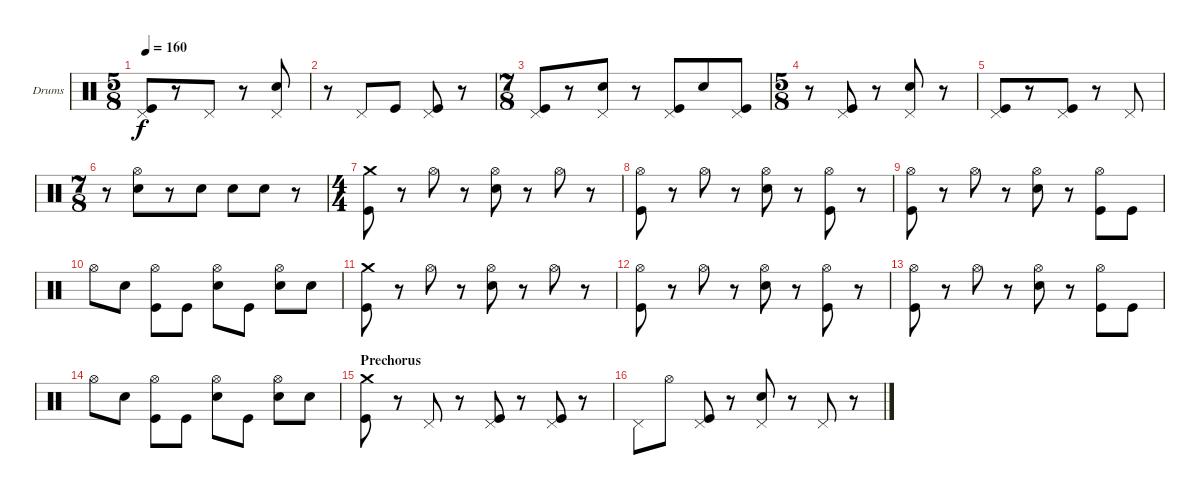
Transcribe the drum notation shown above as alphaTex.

\bracketExtendMode groupsimilarinstruments
\firstSystemTrackNameOrientation horizontal
\otherSystemsTrackNameOrientation horizontal
\track ("Drumkit" "Drums") {instrument percussion}
\staff {score}
\articulation defaults
\ts (5 8)
\tempo 160
\clef neutral
\ks c
("Pedal Hi-Hat (hit)" "Kick (hit)").8{dy f} r.8 "Pedal Hi-Hat (hit)".8 r.8 ("Pedal Hi-Hat (hit)" "Snare (hit) 2").8 |
r.8 "Pedal Hi-Hat (hit)".8 "Kick (hit)".8 ("Pedal Hi-Hat (hit)" "Kick (hit)").8 r.8 |
\ts (7 8)
("Pedal Hi-Hat (hit)" "Kick (hit)").8 r.8 ("Pedal Hi-Hat (hit)" "Snare (hit) 2").8 r.8 ("Pedal Hi-Hat (hit)" "Kick (hit)").8 "Snare (hit) 2".8 ("Pedal Hi-Hat (hit)" "Kick (hit)").8 |
\ts (5 8)
r.8 ("Pedal Hi-Hat (hit)" "Kick (hit)").8 r.8 ("Pedal Hi-Hat (hit)" "Snare (hit) 2").8 r.8 |
("Pedal Hi-Hat (hit)" "Kick (hit)").8 r.8 ("Pedal Hi-Hat (hit)" "Kick (hit)").8 r.8 "Pedal Hi-Hat (hit)".8 |
\ts (7 8)
r.8 ("Hi-Hat (open)" "Snare (hit) 2").8 r.8 "Snare (hit) 2".8 "Snare (hit) 2".8 "Snare (hit) 2".8 r.8 |
\ts (4 4)
("Crash medium (hit)" "Kick (hit)").8 r.8 "Hi-Hat (open)".8 r.8 ("Hi-Hat (open)" "Snare (hit) 2").8 r.8 "Hi-Hat (open)".8 r.8 |
("Hi-Hat (open)" "Kick (hit)").8 r.8 "Hi-Hat (open)".8 r.8 ("Hi-Hat (open)" "Snare (hit) 2").8 r.8 ("Hi-Hat (open)" "Kick (hit)").8 r.8 |
("Hi-Hat (open)" "Kick (hit)").8 r.8 "Hi-Hat (open)".8 r.8 ("Hi-Hat (open)" "Snare (hit) 2").8 r.8 ("Hi-Hat (open)" "Kick (hit)").8 "Kick (hit)".8 |
"Hi-Hat (open)".8 "Snare (hit) 2".8 ("Hi-Hat (open)" "Kick (hit)").8 "Kick (hit)".8 ("Hi-Hat (open)" "Snare (hit) 2").8 "Kick (hit)".8 ("Hi-Hat (open)" "Snare (hit) 2").8 "Snare (hit) 2".8 |
("Crash medium (hit)" "Kick (hit)").8 r.8 "Hi-Hat (open)".8 r.8 ("Hi-Hat (open)" "Snare (hit) 2").8 r.8 "Hi-Hat (open)".8 r.8 |
("Hi-Hat (open)" "Kick (hit)").8 r.8 "Hi-Hat (open)".8 r.8 ("Hi-Hat (open)" "Snare (hit) 2").8 r.8 ("Hi-Hat (open)" "Kick (hit)").8 r.8 |
("Hi-Hat (open)" "Kick (hit)").8 r.8 "Hi-Hat (open)".8 r.8 ("Hi-Hat (open)" "Snare (hit) 2").8 r.8 ("Hi-Hat (open)" "Kick (hit)").8 "Kick (hit)".8 |
"Hi-Hat (open)".8 "Snare (hit) 2".8 ("Hi-Hat (open)" "Kick (hit)").8 "Kick (hit)".8 ("Hi-Hat (open)" "Snare (hit) 2").8 "Kick (hit)".8 ("Hi-Hat (open)" "Snare (hit) 2").8 "Snare (hit) 2".8 |
\section ("" "Prechorus")
("Crash medium (hit)" "Kick (hit)").8 r.8 "Pedal Hi-Hat (hit)".8 r.8 ("Pedal Hi-Hat (hit)" "Kick (hit)").8 r.8 ("Pedal Hi-Hat (hit)" "Kick (hit)").8 r.8 |
"Pedal Hi-Hat (hit)".8 "Hi-Hat (open)".8 ("Pedal Hi-Hat (hit)" "Kick (hit)").8 r.8 ("Pedal Hi-Hat (hit)" "Snare (hit) 2").8 r.8 "Pedal Hi-Hat (hit)".8 r.8
